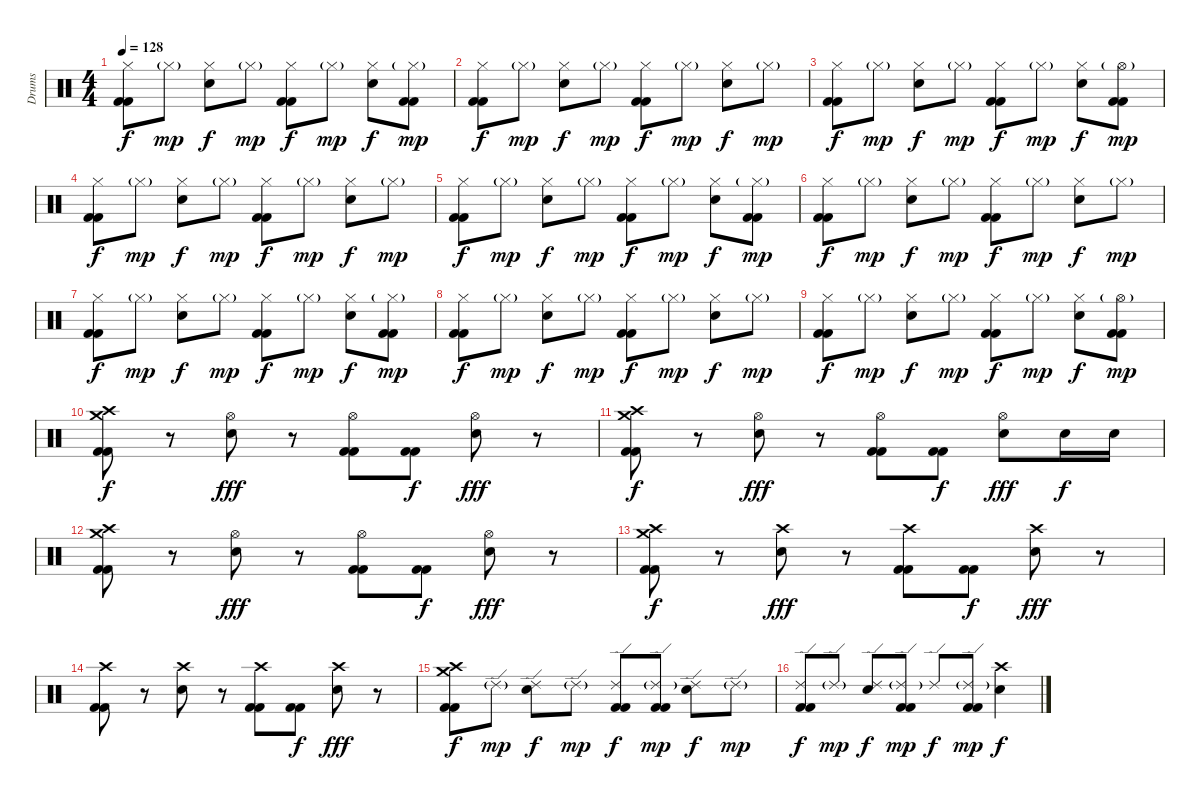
\track ("Drums" "Drums") {instrument percussion}
\staff {score}
\articulation defaults
\ts (4 4)
\tempo 128
\clef neutral
\ks c
("Hi-Hat (closed)" "Kick (hit) 2" "Kick (hit) 2").8{dy f} "Hi-Hat (closed)"{g}.8{dy mp} ("Hi-Hat (closed)" "Electric Snare (hit)").8{dy f} "Hi-Hat (closed)"{g}.8{dy mp} ("Hi-Hat (closed)" "Kick (hit) 2" "Kick (hit) 2").8{dy f} "Hi-Hat (closed)"{g}.8{dy mp} ("Hi-Hat (closed)" "Electric Snare (hit)").8{dy f} ("Hi-Hat (closed)"{g} "Kick (hit) 2" "Kick (hit) 2").8{dy mp} |
("Hi-Hat (closed)" "Kick (hit) 2" "Kick (hit) 2").8{dy f} "Hi-Hat (closed)"{g}.8{dy mp} ("Hi-Hat (closed)" "Electric Snare (hit)").8{dy f} "Hi-Hat (closed)"{g}.8{dy mp} ("Hi-Hat (closed)" "Kick (hit) 2" "Kick (hit) 2").8{dy f} "Hi-Hat (closed)"{g}.8{dy mp} ("Hi-Hat (closed)" "Electric Snare (hit)").8{dy f} "Hi-Hat (closed)"{g}.8{dy mp} |
("Hi-Hat (closed)" "Kick (hit) 2" "Kick (hit) 2").8{dy f} "Hi-Hat (closed)"{g}.8{dy mp} ("Hi-Hat (closed)" "Electric Snare (hit)").8{dy f} "Hi-Hat (closed)"{g}.8{dy mp} ("Hi-Hat (closed)" "Kick (hit) 2" "Kick (hit) 2").8{dy f} "Hi-Hat (closed)"{g}.8{dy mp} ("Hi-Hat (closed)" "Electric Snare (hit)").8{dy f} ("Hi-Hat (open)"{g} "Kick (hit) 2" "Kick (hit) 2").8{dy mp} |
("Hi-Hat (closed)" "Kick (hit) 2" "Kick (hit) 2").8{dy f} "Hi-Hat (closed)"{g}.8{dy mp} ("Hi-Hat (closed)" "Electric Snare (hit)").8{dy f} "Hi-Hat (closed)"{g}.8{dy mp} ("Hi-Hat (closed)" "Kick (hit) 2" "Kick (hit) 2").8{dy f} "Hi-Hat (closed)"{g}.8{dy mp} ("Hi-Hat (closed)" "Electric Snare (hit)").8{dy f} "Hi-Hat (closed)"{g}.8{dy mp} |
("Hi-Hat (closed)" "Kick (hit) 2" "Kick (hit) 2").8{dy f} "Hi-Hat (closed)"{g}.8{dy mp} ("Hi-Hat (closed)" "Electric Snare (hit)").8{dy f} "Hi-Hat (closed)"{g}.8{dy mp} ("Hi-Hat (closed)" "Kick (hit) 2" "Kick (hit) 2").8{dy f} "Hi-Hat (closed)"{g}.8{dy mp} ("Hi-Hat (closed)" "Electric Snare (hit)").8{dy f} ("Hi-Hat (closed)"{g} "Kick (hit) 2" "Kick (hit) 2").8{dy mp} |
("Hi-Hat (closed)" "Kick (hit) 2" "Kick (hit) 2").8{dy f} "Hi-Hat (closed)"{g}.8{dy mp} ("Hi-Hat (closed)" "Electric Snare (hit)").8{dy f} "Hi-Hat (closed)"{g}.8{dy mp} ("Hi-Hat (closed)" "Kick (hit) 2" "Kick (hit) 2").8{dy f} "Hi-Hat (closed)"{g}.8{dy mp} ("Hi-Hat (closed)" "Electric Snare (hit)").8{dy f} "Hi-Hat (closed)"{g}.8{dy mp} |
("Hi-Hat (closed)" "Kick (hit) 2" "Kick (hit) 2").8{dy f} "Hi-Hat (closed)"{g}.8{dy mp} ("Hi-Hat (closed)" "Electric Snare (hit)").8{dy f} "Hi-Hat (closed)"{g}.8{dy mp} ("Hi-Hat (closed)" "Kick (hit) 2" "Kick (hit) 2").8{dy f} "Hi-Hat (closed)"{g}.8{dy mp} ("Hi-Hat (closed)" "Electric Snare (hit)").8{dy f} ("Hi-Hat (closed)"{g} "Kick (hit) 2" "Kick (hit) 2").8{dy mp} |
("Hi-Hat (closed)" "Kick (hit) 2" "Kick (hit) 2").8{dy f} "Hi-Hat (closed)"{g}.8{dy mp} ("Hi-Hat (closed)" "Electric Snare (hit)").8{dy f} "Hi-Hat (closed)"{g}.8{dy mp} ("Hi-Hat (closed)" "Kick (hit) 2" "Kick (hit) 2").8{dy f} "Hi-Hat (closed)"{g}.8{dy mp} ("Hi-Hat (closed)" "Electric Snare (hit)").8{dy f} "Hi-Hat (closed)"{g}.8{dy mp} |
("Hi-Hat (closed)" "Kick (hit) 2" "Kick (hit) 2").8{dy f} "Hi-Hat (closed)"{g}.8{dy mp} ("Hi-Hat (closed)" "Electric Snare (hit)").8{dy f} "Hi-Hat (closed)"{g}.8{dy mp} ("Hi-Hat (closed)" "Kick (hit) 2" "Kick (hit) 2").8{dy f} "Hi-Hat (closed)"{g}.8{dy mp} ("Hi-Hat (closed)" "Electric Snare (hit)").8{dy f} ("Hi-Hat (open)"{g} "Kick (hit) 2" "Kick (hit) 2").8{dy mp} |
("Crash medium (hit)" "Crash high (hit)" "Kick (hit) 2" "Kick (hit) 2").8{dy f} r.8 ("Hi-Hat (open)" "Electric Snare (hit)").8{dy fff} r.8 ("Hi-Hat (open)" "Kick (hit) 2" "Kick (hit) 2").8 ("Kick (hit) 2" "Kick (hit) 2").8{dy f} ("Hi-Hat (open)" "Electric Snare (hit)").8{dy fff} r.8 |
("Crash medium (hit)" "Crash high (hit)" "Kick (hit) 2" "Kick (hit) 2").8{dy f} r.8 ("Hi-Hat (open)" "Electric Snare (hit)").8{dy fff} r.8 ("Hi-Hat (open)" "Kick (hit) 2" "Kick (hit) 2").8 ("Kick (hit) 2" "Kick (hit) 2").8{dy f} ("Hi-Hat (open)" "Electric Snare (hit)").8{dy fff} "Electric Snare (hit)".16{dy f} "Electric Snare (hit)".16 |
("Crash medium (hit)" "Crash high (hit)" "Kick (hit) 2" "Kick (hit) 2").8 r.8 ("Hi-Hat (open)" "Electric Snare (hit)").8{dy fff} r.8 ("Hi-Hat (open)" "Kick (hit) 2" "Kick (hit) 2").8 ("Kick (hit) 2" "Kick (hit) 2").8{dy f} ("Hi-Hat (open)" "Electric Snare (hit)").8{dy fff} r.8 |
("Crash medium (hit)" "Crash high (hit)" "Kick (hit) 2" "Kick (hit) 2").8{dy f} r.8 ("Crash high (hit)" "Electric Snare (hit)").8{dy fff} r.8 ("Crash high (hit)" "Kick (hit) 2" "Kick (hit) 2").8 ("Kick (hit) 2" "Kick (hit) 2").8{dy f} ("Crash high (hit)" "Electric Snare (hit)").8{dy fff} r.8 |
("Crash high (hit)" "Kick (hit) 2" "Kick (hit) 2").8 r.8 ("Crash high (hit)" "Electric Snare (hit)").8 r.8 ("Crash high (hit)" "Kick (hit) 2" "Kick (hit) 2").8 ("Kick (hit) 2" "Kick (hit) 2").8{dy f} ("Crash high (hit)" "Electric Snare (hit)").8{dy fff} r.8 |
("Crash medium (hit)" "Crash high (hit)" "Kick (hit) 2" "Kick (hit) 2").8{dy f} "Ride (edge) 2"{g}.8{dy mp} ("Ride (edge) 2" "Electric Snare (hit)").8{dy f} "Ride (edge) 2"{g}.8{dy mp} ("Ride (edge) 2" "Kick (hit) 2" "Kick (hit) 2").8{dy f} ("Ride (edge) 2"{g} "Kick (hit) 2" "Kick (hit) 2").8{dy mp} ("Ride (edge) 2" "Electric Snare (hit)").8{dy f} "Ride (edge) 2"{g}.8{dy mp} |
("Ride (edge) 2" "Kick (hit) 2" "Kick (hit) 2").8{dy f} "Ride (edge) 2"{g}.8{dy mp} ("Ride (edge) 2" "Electric Snare (hit)").8{dy f} ("Ride (edge) 2"{g} "Kick (hit) 2" "Kick (hit) 2").8{dy mp} "Ride (edge) 2".8{dy f} ("Ride (edge) 2"{g} "Kick (hit) 2" "Kick (hit) 2").8{dy mp} ("Crash high (hit)" "Electric Snare (hit)").4{dy f}
